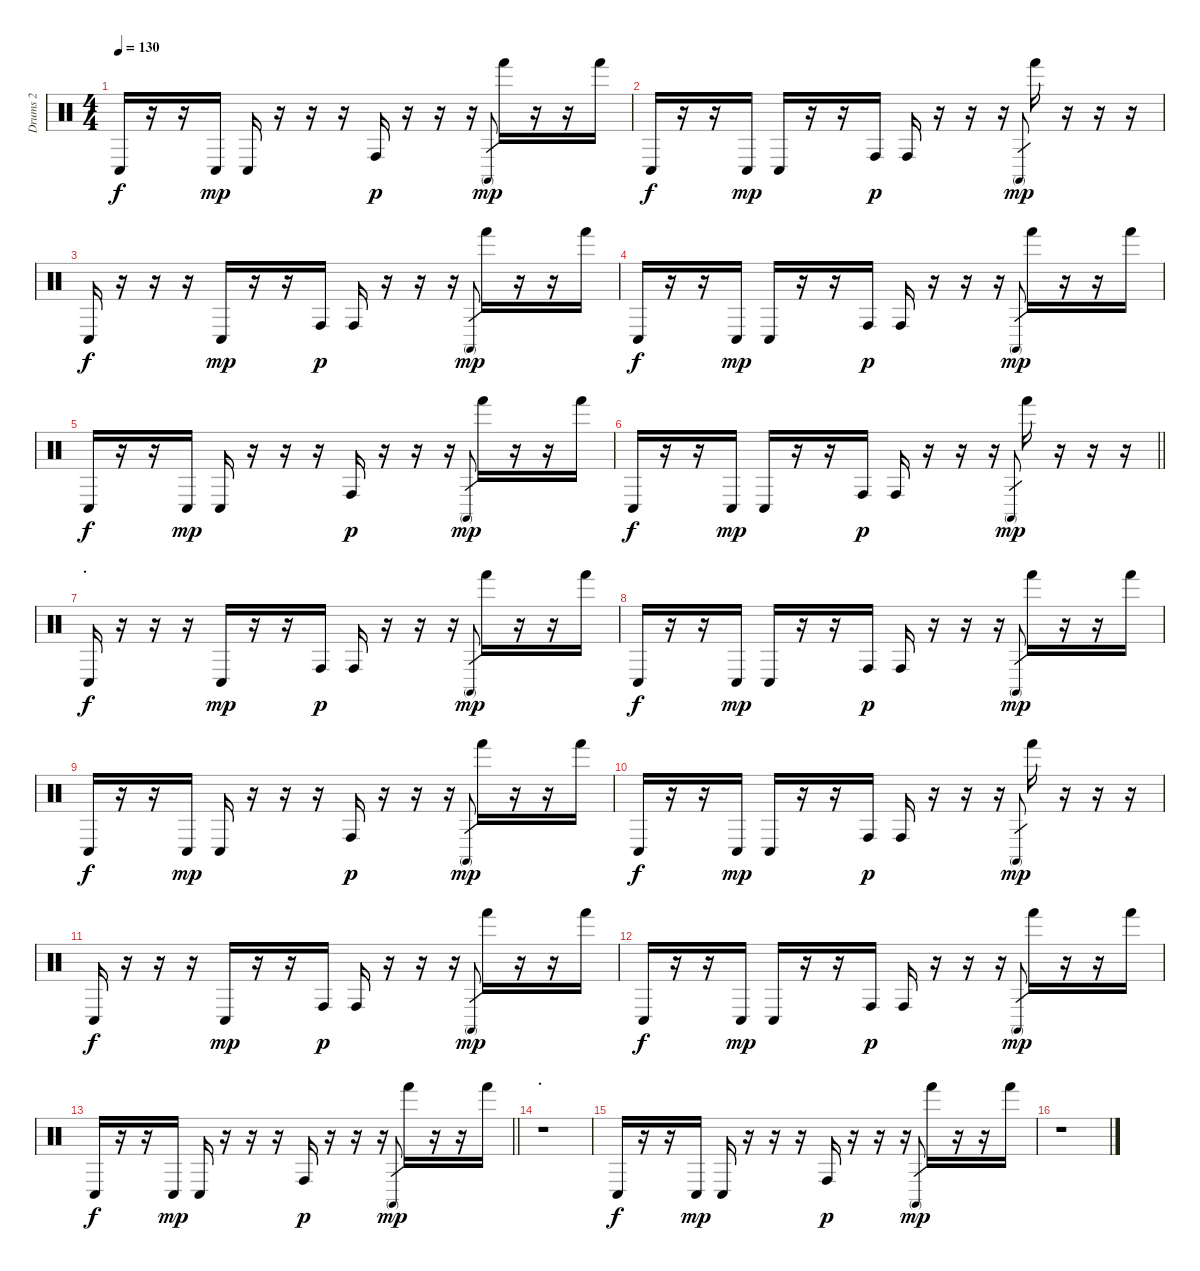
\track ("Drums 2" "Drums 2") {instrument percussion}
\staff {score}
\articulation defaults
\ts (4 4)
\tempo 130
\clef neutral
\ks c "Conga low (hit)".16{dy f}
r.16 r.16 "Conga low (hit)".16{dy mp} "Conga low (hit)".16 r.16 r.16 r.16 "Conga high (hit)".16{dy p} r.16 r.16 r.16 "Conga high (mute)".8{gr dy mp} "Hand (hit)".16 r.16 r.16 "Hand (hit)".16 |
"Conga low (hit)".16{dy f} r.16 r.16 "Conga low (hit)".16{dy mp} "Conga low (hit)".16 r.16 r.16 "Conga high (hit)".16{dy p} "Conga high (hit)".16 r.16 r.16 r.16 "Conga high (mute)".8{gr dy mp} "Hand (hit)".16 r.16 r.16 r.16 |
"Conga low (hit)".16{dy f} r.16 r.16 r.16 "Conga low (hit)".16{dy mp} r.16 r.16 "Conga high (hit)".16{dy p} "Conga high (hit)".16 r.16 r.16 r.16 "Conga high (mute)".8{gr dy mp} "Hand (hit)".16 r.16 r.16 "Hand (hit)".16 |
"Conga low (hit)".16{dy f} r.16 r.16 "Conga low (hit)".16{dy mp} "Conga low (hit)".16 r.16 r.16 "Conga high (hit)".16{dy p} "Conga high (hit)".16 r.16 r.16 r.16 "Conga high (mute)".8{gr dy mp} "Hand (hit)".16 r.16 r.16 "Hand (hit)".16 |
"Conga low (hit)".16{dy f} r.16 r.16 "Conga low (hit)".16{dy mp} "Conga low (hit)".16 r.16 r.16 r.16 "Conga high (hit)".16{dy p} r.16 r.16 r.16 "Conga high (mute)".8{gr dy mp} "Hand (hit)".16 r.16 r.16 "Hand (hit)".16 |
\barLineRight lightlight "Conga low (hit)".16{dy f}
r.16 r.16 "Conga low (hit)".16{dy mp} "Conga low (hit)".16 r.16 r.16 "Conga high (hit)".16{dy p} "Conga high (hit)".16 r.16 r.16 r.16 "Conga high (mute)".8{gr dy mp} "Hand (hit)".16 r.16 r.16 r.16 |
\section ("" ".")
"Conga low (hit)".16{dy f} r.16 r.16 r.16 "Conga low (hit)".16{dy mp} r.16 r.16 "Conga high (hit)".16{dy p} "Conga high (hit)".16 r.16 r.16 r.16 "Conga high (mute)".8{gr dy mp} "Hand (hit)".16 r.16 r.16 "Hand (hit)".16 |
"Conga low (hit)".16{dy f} r.16 r.16 "Conga low (hit)".16{dy mp} "Conga low (hit)".16 r.16 r.16 "Conga high (hit)".16{dy p} "Conga high (hit)".16 r.16 r.16 r.16 "Conga high (mute)".8{gr dy mp} "Hand (hit)".16 r.16 r.16 "Hand (hit)".16 |
"Conga low (hit)".16{dy f} r.16 r.16 "Conga low (hit)".16{dy mp} "Conga low (hit)".16 r.16 r.16 r.16 "Conga high (hit)".16{dy p} r.16 r.16 r.16 "Conga high (mute)".8{gr dy mp} "Hand (hit)".16 r.16 r.16 "Hand (hit)".16 |
"Conga low (hit)".16{dy f} r.16 r.16 "Conga low (hit)".16{dy mp} "Conga low (hit)".16 r.16 r.16 "Conga high (hit)".16{dy p} "Conga high (hit)".16 r.16 r.16 r.16 "Conga high (mute)".8{gr dy mp} "Hand (hit)".16 r.16 r.16 r.16 |
"Conga low (hit)".16{dy f} r.16 r.16 r.16 "Conga low (hit)".16{dy mp} r.16 r.16 "Conga high (hit)".16{dy p} "Conga high (hit)".16 r.16 r.16 r.16 "Conga high (mute)".8{gr dy mp} "Hand (hit)".16 r.16 r.16 "Hand (hit)".16 |
"Conga low (hit)".16{dy f} r.16 r.16 "Conga low (hit)".16{dy mp} "Conga low (hit)".16 r.16 r.16 "Conga high (hit)".16{dy p} "Conga high (hit)".16 r.16 r.16 r.16 "Conga high (mute)".8{gr dy mp} "Hand (hit)".16 r.16 r.16 "Hand (hit)".16 |
\barLineRight lightlight "Conga low (hit)".16{dy f}
r.16 r.16 "Conga low (hit)".16{dy mp} "Conga low (hit)".16 r.16 r.16 r.16 "Conga high (hit)".16{dy p} r.16 r.16 r.16 "Conga high (mute)".8{gr dy mp} "Hand (hit)".16 r.16 r.16 "Hand (hit)".16 |
\section ("" ".")
r.1 |
"Conga low (hit)".16{dy f} r.16 r.16 "Conga low (hit)".16{dy mp} "Conga low (hit)".16 r.16 r.16 r.16 "Conga high (hit)".16{dy p} r.16 r.16 r.16 "Conga high (mute)".8{gr dy mp} "Hand (hit)".16 r.16 r.16 "Hand (hit)".16 |
r.1
